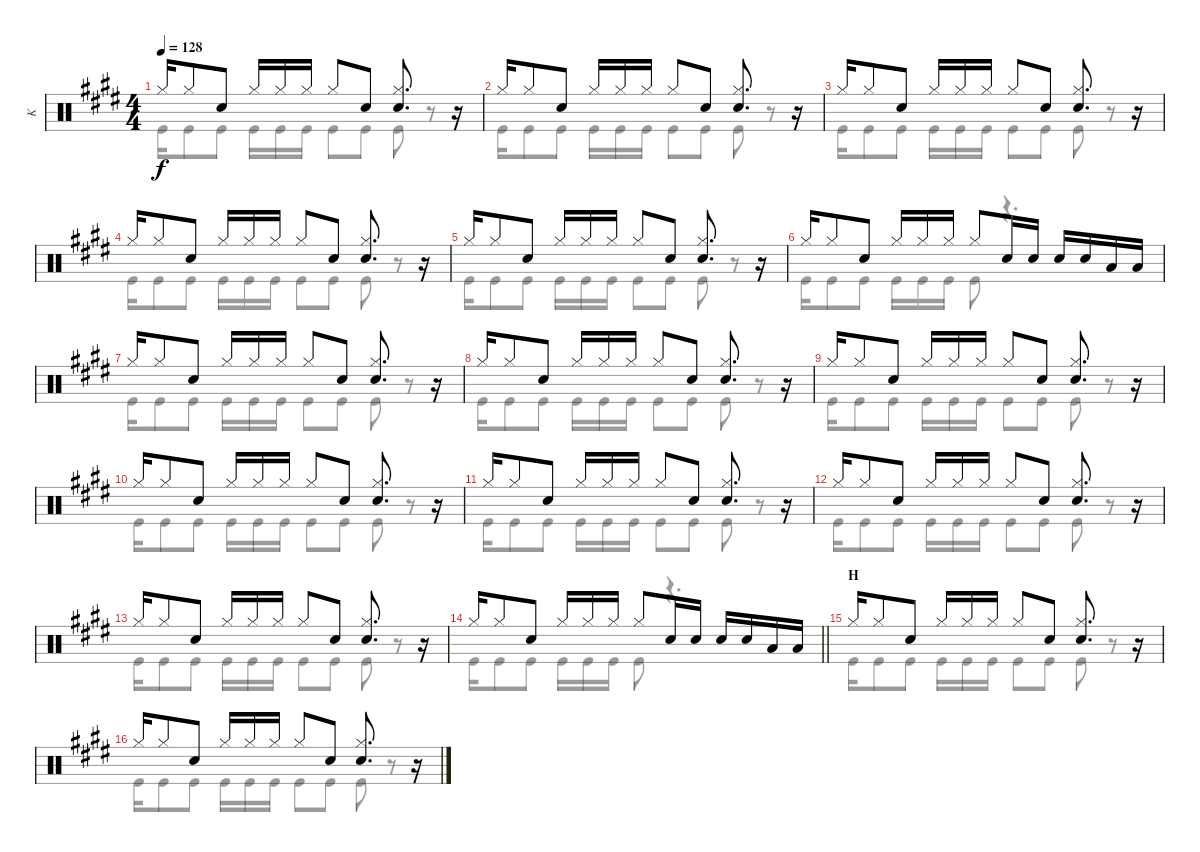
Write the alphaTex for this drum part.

\track ("K" "K") {instrument percussion}
\staff {score}
\articulation defaults
\voice
\ts (4 4)
\tempo 128
\clef neutral
\ks e "Hi-Hat (closed)".16{dy f} "Hi-Hat (closed)".8 "Snare (hit) 2".8 "Hi-Hat (closed)".16 "Hi-Hat (closed)".16 "Hi-Hat (closed)".16 "Hi-Hat (closed)".8 "Snare (hit) 2".8
("Hi-Hat (closed)" "Snare (hit) 2").8{d} r.16 |
"Hi-Hat (closed)".16 "Hi-Hat (closed)".8 "Snare (hit) 2".8 "Hi-Hat (closed)".16 "Hi-Hat (closed)".16 "Hi-Hat (closed)".16 "Hi-Hat (closed)".8 "Snare (hit) 2".8 ("Hi-Hat (closed)" "Snare (hit) 2").8{d} r.16 |
"Hi-Hat (closed)".16 "Hi-Hat (closed)".8 "Snare (hit) 2".8 "Hi-Hat (closed)".16 "Hi-Hat (closed)".16 "Hi-Hat (closed)".16 "Hi-Hat (closed)".8 "Snare (hit) 2".8 ("Hi-Hat (closed)" "Snare (hit) 2").8{d} r.16 |
"Hi-Hat (closed)".16 "Hi-Hat (closed)".8 "Snare (hit) 2".8 "Hi-Hat (closed)".16 "Hi-Hat (closed)".16 "Hi-Hat (closed)".16 "Hi-Hat (closed)".8 "Snare (hit) 2".8 ("Hi-Hat (closed)" "Snare (hit) 2").8{d} r.16 |
"Hi-Hat (closed)".16 "Hi-Hat (closed)".8 "Snare (hit) 2".8 "Hi-Hat (closed)".16 "Hi-Hat (closed)".16 "Hi-Hat (closed)".16 "Hi-Hat (closed)".8 "Snare (hit) 2".8 ("Hi-Hat (closed)" "Snare (hit) 2").8{d} r.16 |
"Hi-Hat (closed)".16 "Hi-Hat (closed)".8 "Snare (hit) 2".8 "Hi-Hat (closed)".16 "Hi-Hat (closed)".16 "Hi-Hat (closed)".16 "Hi-Hat (closed)".8 "Snare (hit) 2".16 "Snare (hit) 2".16 "Snare (hit) 2".16 "Snare (hit) 2".16 "Low Tom (hit)".16 "Low Tom (hit)".16 |
"Hi-Hat (closed)".16 "Hi-Hat (closed)".8 "Snare (hit) 2".8 "Hi-Hat (closed)".16 "Hi-Hat (closed)".16 "Hi-Hat (closed)".16 "Hi-Hat (closed)".8 "Snare (hit) 2".8 ("Hi-Hat (closed)" "Snare (hit) 2").8{d} r.16 |
"Hi-Hat (closed)".16 "Hi-Hat (closed)".8 "Snare (hit) 2".8 "Hi-Hat (closed)".16 "Hi-Hat (closed)".16 "Hi-Hat (closed)".16 "Hi-Hat (closed)".8 "Snare (hit) 2".8 ("Hi-Hat (closed)" "Snare (hit) 2").8{d} r.16 |
"Hi-Hat (closed)".16 "Hi-Hat (closed)".8 "Snare (hit) 2".8 "Hi-Hat (closed)".16 "Hi-Hat (closed)".16 "Hi-Hat (closed)".16 "Hi-Hat (closed)".8 "Snare (hit) 2".8 ("Hi-Hat (closed)" "Snare (hit) 2").8{d} r.16 |
"Hi-Hat (closed)".16 "Hi-Hat (closed)".8 "Snare (hit) 2".8 "Hi-Hat (closed)".16 "Hi-Hat (closed)".16 "Hi-Hat (closed)".16 "Hi-Hat (closed)".8 "Snare (hit) 2".8 ("Hi-Hat (closed)" "Snare (hit) 2").8{d} r.16 |
"Hi-Hat (closed)".16 "Hi-Hat (closed)".8 "Snare (hit) 2".8 "Hi-Hat (closed)".16 "Hi-Hat (closed)".16 "Hi-Hat (closed)".16 "Hi-Hat (closed)".8 "Snare (hit) 2".8 ("Hi-Hat (closed)" "Snare (hit) 2").8{d} r.16 |
"Hi-Hat (closed)".16 "Hi-Hat (closed)".8 "Snare (hit) 2".8 "Hi-Hat (closed)".16 "Hi-Hat (closed)".16 "Hi-Hat (closed)".16 "Hi-Hat (closed)".8 "Snare (hit) 2".8 ("Hi-Hat (closed)" "Snare (hit) 2").8{d} r.16 |
"Hi-Hat (closed)".16 "Hi-Hat (closed)".8 "Snare (hit) 2".8 "Hi-Hat (closed)".16 "Hi-Hat (closed)".16 "Hi-Hat (closed)".16 "Hi-Hat (closed)".8 "Snare (hit) 2".8 ("Hi-Hat (closed)" "Snare (hit) 2").8{d} r.16 |
\barLineRight lightlight "Hi-Hat (closed)".16 "Hi-Hat (closed)".8 "Snare (hit) 2".8 "Hi-Hat (closed)".16 "Hi-Hat (closed)".16 "Hi-Hat (closed)".16 "Hi-Hat (closed)".8 "Snare (hit) 2".16 "Snare (hit) 2".16 "Snare (hit) 2".16 "Snare (hit) 2".16 "Low Tom (hit)".16 "Low Tom (hit)".16
|
\section ("" "H")
"Hi-Hat (closed)".16 "Hi-Hat (closed)".8 "Snare (hit) 2".8 "Hi-Hat (closed)".16 "Hi-Hat (closed)".16 "Hi-Hat (closed)".16 "Hi-Hat (closed)".8 "Snare (hit) 2".8 ("Hi-Hat (closed)" "Snare (hit) 2").8{d} r.16 |
"Hi-Hat (closed)".16 "Hi-Hat (closed)".8 "Snare (hit) 2".8 "Hi-Hat (closed)".16 "Hi-Hat (closed)".16 "Hi-Hat (closed)".16 "Hi-Hat (closed)".8 "Snare (hit) 2".8 ("Hi-Hat (closed)" "Snare (hit) 2").8{d} r.16
\voice
\clef neutral
\ottava regular
\simile none
\ks e "Kick (hit)".16{dy f} "Kick (hit)".8 "Kick (hit)".8 "Kick (hit)".16 "Kick (hit)".16 "Kick (hit)".16 "Kick (hit)".8 "Kick (hit)".8 "Kick (hit)".8
r.8 |
"Kick (hit)".16 "Kick (hit)".8 "Kick (hit)".8 "Kick (hit)".16 "Kick (hit)".16 "Kick (hit)".16 "Kick (hit)".8 "Kick (hit)".8 "Kick (hit)".8 r.8 |
"Kick (hit)".16 "Kick (hit)".8 "Kick (hit)".8 "Kick (hit)".16 "Kick (hit)".16 "Kick (hit)".16 "Kick (hit)".8 "Kick (hit)".8 "Kick (hit)".8 r.8 |
"Kick (hit)".16 "Kick (hit)".8 "Kick (hit)".8 "Kick (hit)".16 "Kick (hit)".16 "Kick (hit)".16 "Kick (hit)".8 "Kick (hit)".8 "Kick (hit)".8 r.8 |
"Kick (hit)".16 "Kick (hit)".8 "Kick (hit)".8 "Kick (hit)".16 "Kick (hit)".16 "Kick (hit)".16 "Kick (hit)".8 "Kick (hit)".8 "Kick (hit)".8 r.8 |
"Kick (hit)".16 "Kick (hit)".8 "Kick (hit)".8 "Kick (hit)".16 "Kick (hit)".16 "Kick (hit)".16 "Kick (hit)".8 r.4{d} |
"Kick (hit)".16 "Kick (hit)".8 "Kick (hit)".8 "Kick (hit)".16 "Kick (hit)".16 "Kick (hit)".16 "Kick (hit)".8 "Kick (hit)".8 "Kick (hit)".8 r.8 |
"Kick (hit)".16 "Kick (hit)".8 "Kick (hit)".8 "Kick (hit)".16 "Kick (hit)".16 "Kick (hit)".16 "Kick (hit)".8 "Kick (hit)".8 "Kick (hit)".8 r.8 |
"Kick (hit)".16 "Kick (hit)".8 "Kick (hit)".8 "Kick (hit)".16 "Kick (hit)".16 "Kick (hit)".16 "Kick (hit)".8 "Kick (hit)".8 "Kick (hit)".8 r.8 |
"Kick (hit)".16 "Kick (hit)".8 "Kick (hit)".8 "Kick (hit)".16 "Kick (hit)".16 "Kick (hit)".16 "Kick (hit)".8 "Kick (hit)".8 "Kick (hit)".8 r.8 |
"Kick (hit)".16 "Kick (hit)".8 "Kick (hit)".8 "Kick (hit)".16 "Kick (hit)".16 "Kick (hit)".16 "Kick (hit)".8 "Kick (hit)".8 "Kick (hit)".8 r.8 |
"Kick (hit)".16 "Kick (hit)".8 "Kick (hit)".8 "Kick (hit)".16 "Kick (hit)".16 "Kick (hit)".16 "Kick (hit)".8 "Kick (hit)".8 "Kick (hit)".8 r.8 |
"Kick (hit)".16 "Kick (hit)".8 "Kick (hit)".8 "Kick (hit)".16 "Kick (hit)".16 "Kick (hit)".16 "Kick (hit)".8 "Kick (hit)".8 "Kick (hit)".8 r.8 |
\barLineRight lightlight "Kick (hit)".16 "Kick (hit)".8 "Kick (hit)".8 "Kick (hit)".16 "Kick (hit)".16 "Kick (hit)".16 "Kick (hit)".8
r.4{d} |
"Kick (hit)".16 "Kick (hit)".8 "Kick (hit)".8 "Kick (hit)".16 "Kick (hit)".16 "Kick (hit)".16 "Kick (hit)".8 "Kick (hit)".8 "Kick (hit)".8 r.8 |
"Kick (hit)".16 "Kick (hit)".8 "Kick (hit)".8 "Kick (hit)".16 "Kick (hit)".16 "Kick (hit)".16 "Kick (hit)".8 "Kick (hit)".8 "Kick (hit)".8 r.8
